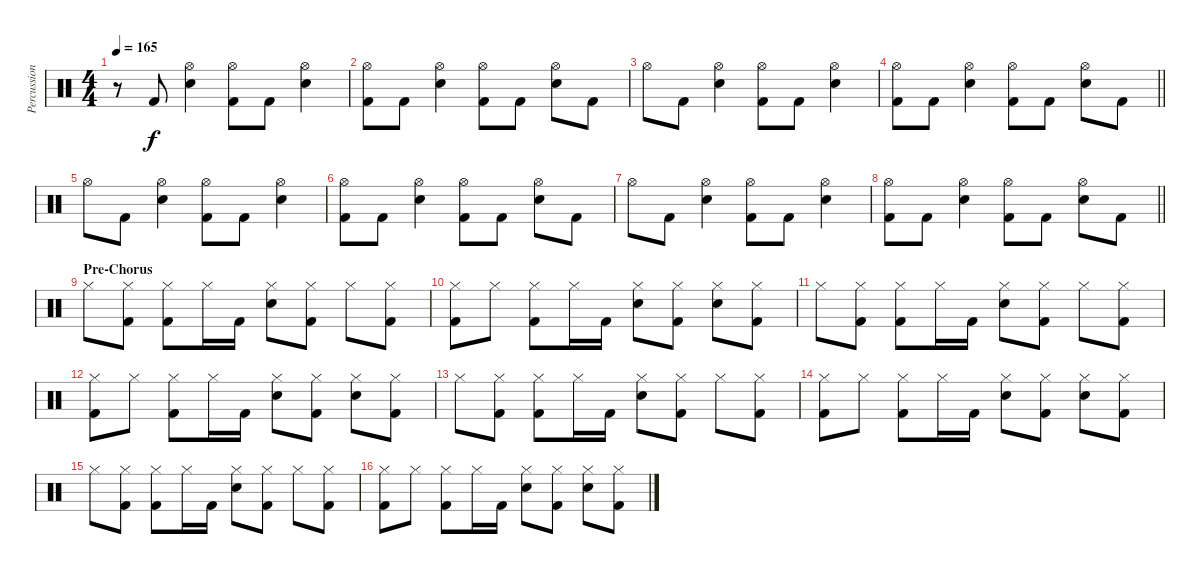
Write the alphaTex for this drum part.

\track ("Percussion" "Percussion") {instrument percussion}
\staff {score}
\articulation defaults
\ts (4 4)
\tempo 165
\clef neutral
\ks c
r.8{dy f} "Kick (hit) 2".8 ("Hi-Hat (open)" "Electric Snare (hit)").4 ("Hi-Hat (open)" "Kick (hit) 2").8 "Kick (hit) 2".8 ("Hi-Hat (open)" "Electric Snare (hit)").4 |
("Hi-Hat (open)" "Kick (hit) 2").8 "Kick (hit) 2".8 ("Hi-Hat (open)" "Electric Snare (hit)").4 ("Hi-Hat (open)" "Kick (hit) 2").8 "Kick (hit) 2".8 ("Hi-Hat (open)" "Electric Snare (hit)").8 "Kick (hit) 2".8 |
"Hi-Hat (open)".8 "Kick (hit) 2".8 ("Hi-Hat (open)" "Electric Snare (hit)").4 ("Hi-Hat (open)" "Kick (hit) 2").8 "Kick (hit) 2".8 ("Hi-Hat (open)" "Electric Snare (hit)").4 |
\barLineRight lightlight
("Hi-Hat (open)" "Kick (hit) 2").8 "Kick (hit) 2".8 ("Hi-Hat (open)" "Electric Snare (hit)").4 ("Hi-Hat (open)" "Kick (hit) 2").8 "Kick (hit) 2".8 ("Hi-Hat (open)" "Electric Snare (hit)").8 "Kick (hit) 2".8 |
"Hi-Hat (open)".8 "Kick (hit) 2".8 ("Hi-Hat (open)" "Electric Snare (hit)").4 ("Hi-Hat (open)" "Kick (hit) 2").8 "Kick (hit) 2".8 ("Hi-Hat (open)" "Electric Snare (hit)").4 |
("Hi-Hat (open)" "Kick (hit) 2").8 "Kick (hit) 2".8 ("Hi-Hat (open)" "Electric Snare (hit)").4 ("Hi-Hat (open)" "Kick (hit) 2").8 "Kick (hit) 2".8 ("Hi-Hat (open)" "Electric Snare (hit)").8 "Kick (hit) 2".8 |
"Hi-Hat (open)".8 "Kick (hit) 2".8 ("Hi-Hat (open)" "Electric Snare (hit)").4 ("Hi-Hat (open)" "Kick (hit) 2").8 "Kick (hit) 2".8 ("Hi-Hat (open)" "Electric Snare (hit)").4 |
\barLineRight lightlight
("Hi-Hat (open)" "Kick (hit) 2").8 "Kick (hit) 2".8 ("Hi-Hat (open)" "Electric Snare (hit)").4 ("Hi-Hat (open)" "Kick (hit) 2").8 "Kick (hit) 2".8 ("Hi-Hat (open)" "Electric Snare (hit)").8 "Kick (hit) 2".8 |
\section ("" "Pre-Chorus")
"Hi-Hat (closed)".8 ("Hi-Hat (closed)" "Kick (hit) 2").8 ("Hi-Hat (closed)" "Kick (hit) 2").8 "Hi-Hat (closed)".16 "Kick (hit) 2".16 ("Hi-Hat (closed)" "Electric Snare (hit)").8 ("Hi-Hat (closed)" "Kick (hit) 2").8 "Hi-Hat (closed)".8 ("Hi-Hat (closed)" "Kick (hit) 2").8 |
("Hi-Hat (closed)" "Kick (hit) 2").8 "Hi-Hat (closed)".8 ("Hi-Hat (closed)" "Kick (hit) 2").8 "Hi-Hat (closed)".16 "Kick (hit) 2".16 ("Hi-Hat (closed)" "Electric Snare (hit)").8 ("Hi-Hat (closed)" "Kick (hit) 2").8 ("Hi-Hat (closed)" "Electric Snare (hit)").8 ("Hi-Hat (closed)" "Kick (hit) 2").8 |
"Hi-Hat (closed)".8 ("Hi-Hat (closed)" "Kick (hit) 2").8 ("Hi-Hat (closed)" "Kick (hit) 2").8 "Hi-Hat (closed)".16 "Kick (hit) 2".16 ("Hi-Hat (closed)" "Electric Snare (hit)").8 ("Hi-Hat (closed)" "Kick (hit) 2").8 "Hi-Hat (closed)".8 ("Hi-Hat (closed)" "Kick (hit) 2").8 |
("Hi-Hat (closed)" "Kick (hit) 2").8 "Hi-Hat (closed)".8 ("Hi-Hat (closed)" "Kick (hit) 2").8 "Hi-Hat (closed)".16 "Kick (hit) 2".16 ("Hi-Hat (closed)" "Electric Snare (hit)").8 ("Hi-Hat (closed)" "Kick (hit) 2").8 ("Hi-Hat (closed)" "Electric Snare (hit)").8 ("Hi-Hat (closed)" "Kick (hit) 2").8 |
"Hi-Hat (closed)".8 ("Hi-Hat (closed)" "Kick (hit) 2").8 ("Hi-Hat (closed)" "Kick (hit) 2").8 "Hi-Hat (closed)".16 "Kick (hit) 2".16 ("Hi-Hat (closed)" "Electric Snare (hit)").8 ("Hi-Hat (closed)" "Kick (hit) 2").8 "Hi-Hat (closed)".8 ("Hi-Hat (closed)" "Kick (hit) 2").8 |
("Hi-Hat (closed)" "Kick (hit) 2").8 "Hi-Hat (closed)".8 ("Hi-Hat (closed)" "Kick (hit) 2").8 "Hi-Hat (closed)".16 "Kick (hit) 2".16 ("Hi-Hat (closed)" "Electric Snare (hit)").8 ("Hi-Hat (closed)" "Kick (hit) 2").8 ("Hi-Hat (closed)" "Electric Snare (hit)").8 ("Hi-Hat (closed)" "Kick (hit) 2").8 |
"Hi-Hat (closed)".8 ("Hi-Hat (closed)" "Kick (hit) 2").8 ("Hi-Hat (closed)" "Kick (hit) 2").8 "Hi-Hat (closed)".16 "Kick (hit) 2".16 ("Hi-Hat (closed)" "Electric Snare (hit)").8 ("Hi-Hat (closed)" "Kick (hit) 2").8 "Hi-Hat (closed)".8 ("Hi-Hat (closed)" "Kick (hit) 2").8 |
("Hi-Hat (closed)" "Kick (hit) 2").8 "Hi-Hat (closed)".8 ("Hi-Hat (closed)" "Kick (hit) 2").8 "Hi-Hat (closed)".16 "Kick (hit) 2".16 ("Hi-Hat (closed)" "Electric Snare (hit)").8 ("Hi-Hat (closed)" "Kick (hit) 2").8 ("Hi-Hat (closed)" "Electric Snare (hit)").8 ("Hi-Hat (closed)" "Kick (hit) 2").8
